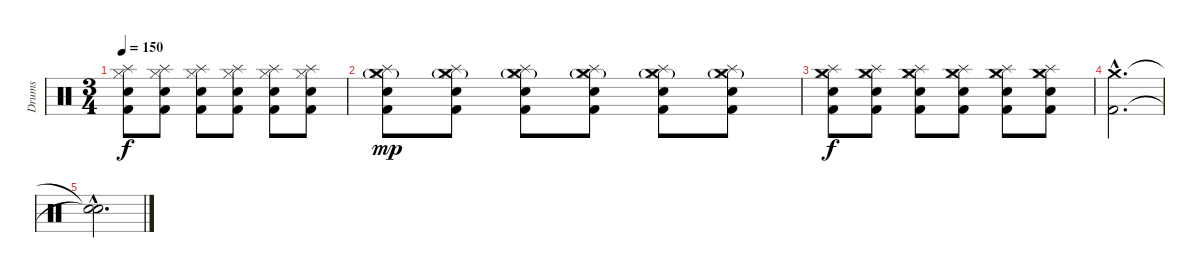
\track ("Drums" "Drums") {instrument percussion}
\staff {score}
\articulation defaults
\ts (3 4)
\tempo 150
\clef neutral
\ks c
("Hi-Hat (closed)" "Splash (hit)" "Electric Snare (hit)" "Kick (hit) 2").8{dy f} ("Hi-Hat (closed)" "Splash (hit)" "Electric Snare (hit)" "Kick (hit) 2").8 ("Hi-Hat (closed)" "Splash (hit)" "Electric Snare (hit)" "Kick (hit) 2").8 ("Hi-Hat (closed)" "Splash (hit)" "Electric Snare (hit)" "Kick (hit) 2").8 ("Hi-Hat (closed)" "Splash (hit)" "Electric Snare (hit)" "Kick (hit) 2").8 ("Hi-Hat (closed)" "Splash (hit)" "Electric Snare (hit)" "Kick (hit) 2").8 |
("Hi-Hat (closed)" "Splash (hit)" "Crash medium (hit)"{g} "Electric Snare (hit)" "Kick (hit) 2").8{dy mp} ("Hi-Hat (closed)" "Splash (hit)" "Crash medium (hit)"{g} "Electric Snare (hit)" "Kick (hit) 2").8 ("Hi-Hat (closed)" "Splash (hit)" "Crash medium (hit)"{g} "Electric Snare (hit)" "Kick (hit) 2").8 ("Hi-Hat (closed)" "Splash (hit)" "Crash medium (hit)"{g} "Electric Snare (hit)" "Kick (hit) 2").8 ("Hi-Hat (closed)" "Splash (hit)" "Crash medium (hit)"{g} "Electric Snare (hit)" "Kick (hit) 2").8 ("Hi-Hat (closed)" "Splash (hit)" "Crash medium (hit)"{g} "Electric Snare (hit)" "Kick (hit) 2").8 |
("Hi-Hat (closed)" "Splash (hit)" "Crash medium (hit)" "Electric Snare (hit)" "Kick (hit) 2").8{dy f} ("Hi-Hat (closed)" "Splash (hit)" "Crash medium (hit)" "Electric Snare (hit)" "Kick (hit) 2").8 ("Hi-Hat (closed)" "Splash (hit)" "Crash medium (hit)" "Electric Snare (hit)" "Kick (hit) 2").8 ("Hi-Hat (closed)" "Splash (hit)" "Crash medium (hit)" "Electric Snare (hit)" "Kick (hit) 2").8 ("Hi-Hat (closed)" "Splash (hit)" "Crash medium (hit)" "Electric Snare (hit)" "Kick (hit) 2").8 ("Hi-Hat (closed)" "Splash (hit)" "Crash medium (hit)" "Electric Snare (hit)" "Kick (hit) 2").8 |
("Crash medium (hit)"{hac} "Kick (hit) 2"{hac}).2{d} |
("Snare (hit)"{hac t} "Snare (hit)"{hac t}).2{d}
